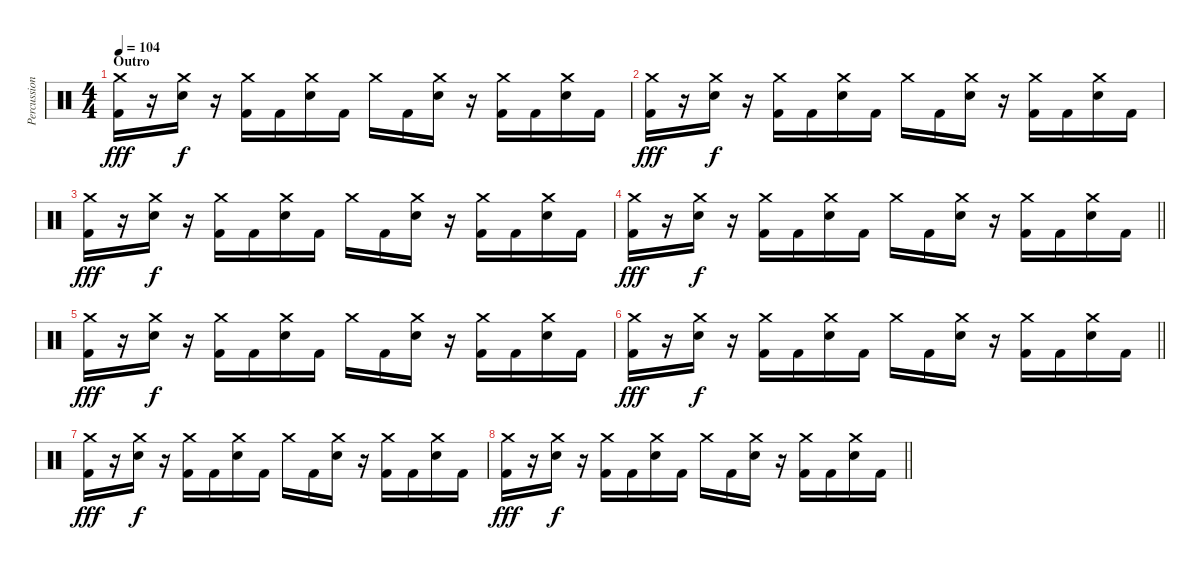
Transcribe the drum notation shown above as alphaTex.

\track ("Percussion" "Percussion") {instrument percussion}
\staff {score}
\articulation defaults
\ts (4 4)
\section ("" "Outro")
\tempo 104
\clef neutral
\ks c
("Crash medium (hit)" "Kick (hit) 2").16{dy fff} r.16 ("Crash medium (hit)" "Electric Snare (hit)").16{dy f} r.16 ("Crash medium (hit)" "Kick (hit) 2").16 "Kick (hit) 2".16 ("Crash medium (hit)" "Electric Snare (hit)").16 "Kick (hit) 2".16 "Crash medium (hit)".16 "Kick (hit) 2".16 ("Crash medium (hit)" "Electric Snare (hit)").16 r.16 ("Crash medium (hit)" "Kick (hit) 2").16 "Kick (hit) 2".16 ("Crash medium (hit)" "Electric Snare (hit)").16 "Kick (hit) 2".16 |
("Crash medium (hit)" "Kick (hit) 2").16{dy fff} r.16 ("Crash medium (hit)" "Electric Snare (hit)").16{dy f} r.16 ("Crash medium (hit)" "Kick (hit) 2").16 "Kick (hit) 2".16 ("Crash medium (hit)" "Electric Snare (hit)").16 "Kick (hit) 2".16 "Crash medium (hit)".16 "Kick (hit) 2".16 ("Crash medium (hit)" "Electric Snare (hit)").16 r.16 ("Crash medium (hit)" "Kick (hit) 2").16 "Kick (hit) 2".16 ("Crash medium (hit)" "Electric Snare (hit)").16 "Kick (hit) 2".16 |
("Crash medium (hit)" "Kick (hit) 2").16{dy fff} r.16 ("Crash medium (hit)" "Electric Snare (hit)").16{dy f} r.16 ("Crash medium (hit)" "Kick (hit) 2").16 "Kick (hit) 2".16 ("Crash medium (hit)" "Electric Snare (hit)").16 "Kick (hit) 2".16 "Crash medium (hit)".16 "Kick (hit) 2".16 ("Crash medium (hit)" "Electric Snare (hit)").16 r.16 ("Crash medium (hit)" "Kick (hit) 2").16 "Kick (hit) 2".16 ("Crash medium (hit)" "Electric Snare (hit)").16 "Kick (hit) 2".16 |
\barLineRight lightlight
("Crash medium (hit)" "Kick (hit) 2").16{dy fff} r.16 ("Crash medium (hit)" "Electric Snare (hit)").16{dy f} r.16 ("Crash medium (hit)" "Kick (hit) 2").16 "Kick (hit) 2".16 ("Crash medium (hit)" "Electric Snare (hit)").16 "Kick (hit) 2".16 "Crash medium (hit)".16 "Kick (hit) 2".16 ("Crash medium (hit)" "Electric Snare (hit)").16 r.16 ("Crash medium (hit)" "Kick (hit) 2").16 "Kick (hit) 2".16 ("Crash medium (hit)" "Electric Snare (hit)").16 "Kick (hit) 2".16 |
("Crash medium (hit)" "Kick (hit) 2").16{dy fff} r.16 ("Crash medium (hit)" "Electric Snare (hit)").16{dy f} r.16 ("Crash medium (hit)" "Kick (hit) 2").16 "Kick (hit) 2".16 ("Crash medium (hit)" "Electric Snare (hit)").16 "Kick (hit) 2".16 "Crash medium (hit)".16 "Kick (hit) 2".16 ("Crash medium (hit)" "Electric Snare (hit)").16 r.16 ("Crash medium (hit)" "Kick (hit) 2").16 "Kick (hit) 2".16 ("Crash medium (hit)" "Electric Snare (hit)").16 "Kick (hit) 2".16 |
\barLineRight lightlight
("Crash medium (hit)" "Kick (hit) 2").16{dy fff} r.16 ("Crash medium (hit)" "Electric Snare (hit)").16{dy f} r.16 ("Crash medium (hit)" "Kick (hit) 2").16 "Kick (hit) 2".16 ("Crash medium (hit)" "Electric Snare (hit)").16 "Kick (hit) 2".16 "Crash medium (hit)".16 "Kick (hit) 2".16 ("Crash medium (hit)" "Electric Snare (hit)").16 r.16 ("Crash medium (hit)" "Kick (hit) 2").16 "Kick (hit) 2".16 ("Crash medium (hit)" "Electric Snare (hit)").16 "Kick (hit) 2".16 |
("Crash medium (hit)" "Kick (hit) 2").16{dy fff} r.16 ("Crash medium (hit)" "Electric Snare (hit)").16{dy f} r.16 ("Crash medium (hit)" "Kick (hit) 2").16 "Kick (hit) 2".16 ("Crash medium (hit)" "Electric Snare (hit)").16 "Kick (hit) 2".16 "Crash medium (hit)".16 "Kick (hit) 2".16 ("Crash medium (hit)" "Electric Snare (hit)").16 r.16 ("Crash medium (hit)" "Kick (hit) 2").16 "Kick (hit) 2".16 ("Crash medium (hit)" "Electric Snare (hit)").16 "Kick (hit) 2".16 |
\barLineRight lightlight
("Crash medium (hit)" "Kick (hit) 2").16{dy fff} r.16 ("Crash medium (hit)" "Electric Snare (hit)").16{dy f} r.16 ("Crash medium (hit)" "Kick (hit) 2").16 "Kick (hit) 2".16 ("Crash medium (hit)" "Electric Snare (hit)").16 "Kick (hit) 2".16 "Crash medium (hit)".16 "Kick (hit) 2".16 ("Crash medium (hit)" "Electric Snare (hit)").16 r.16 ("Crash medium (hit)" "Kick (hit) 2").16 "Kick (hit) 2".16 ("Crash medium (hit)" "Electric Snare (hit)").16 "Kick (hit) 2".16
